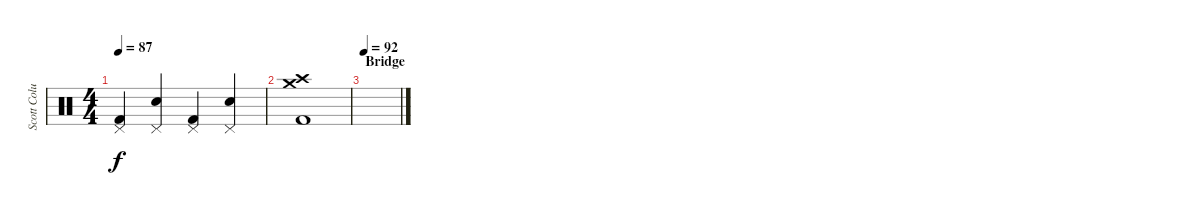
\track ("Scott Columbus" "Scott Colu") {instrument percussion}
\staff {score}
\articulation defaults
\ts (4 4)
\tempo 87
\clef neutral
\ks c
("Pedal Hi-Hat (hit)" "Kick (hit) 2").4{dy f} ("Snare (hit) 2" "Pedal Hi-Hat (hit)").4 ("Pedal Hi-Hat (hit)" "Kick (hit) 2").4 ("Snare (hit) 2" "Pedal Hi-Hat (hit)").4 |
("Crash high (hit)" "Crash medium (hit)" "Kick (hit) 2").1 |
\section ("" "Bridge")
\tempo 92
